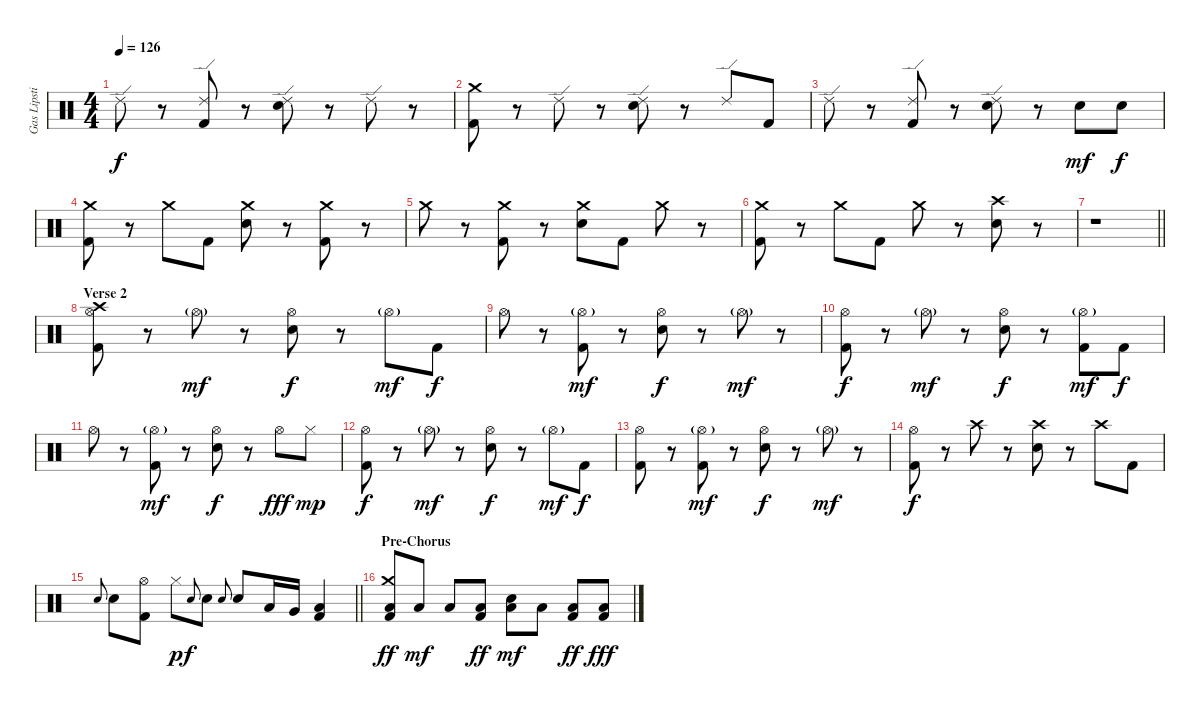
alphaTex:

\track ("Gas Lipstick (Drums)" "Gas Lipsti") {instrument percussion}
\staff {score}
\articulation defaults
\ts (4 4)
\tempo 126
\clef neutral
\ks c "Ride (edge) 2".8{dy f}
r.8 ("Ride (edge) 2" "Kick (hit) 2").8 r.8 ("Ride (edge) 2" "Snare (hit) 2").8 r.8 "Ride (edge) 2".8 r.8 |
("Crash medium (hit)" "Kick (hit) 2").8 r.8 "Ride (edge) 2".8 r.8 ("Ride (edge) 2" "Snare (hit) 2").8 r.8 "Ride (edge) 2".8 "Kick (hit) 2".8 |
"Ride (edge) 2".8 r.8 ("Ride (edge) 2" "Kick (hit) 2").8 r.8 ("Ride (edge) 2" "Snare (hit) 2").8 r.8 "Snare (hit) 2".8{dy mf} "Snare (hit) 2".8{dy f} |
("Crash medium (hit)" "Kick (hit) 2").8 r.8 "Crash medium (hit)".8 "Kick (hit) 2".8 ("Crash medium (hit)" "Snare (hit) 2").8 r.8 ("Crash medium (hit)" "Kick (hit) 2").8 r.8 |
"Crash medium (hit)".8 r.8 ("Crash medium (hit)" "Kick (hit) 2").8 r.8 ("Crash medium (hit)" "Snare (hit) 2").8 "Kick (hit) 2".8 "Crash medium (hit)".8 r.8 |
("Crash medium (hit)" "Kick (hit) 2").8 r.8 "Crash medium (hit)".8 "Kick (hit) 2".8 "Crash medium (hit)".8 r.8 ("Crash high (hit)" "Snare (hit) 2").8 r.8 |
\barLineRight lightlight
r.1 |
\section ("" "Verse 2")
("Crash high (hit)" "Hi-Hat (open)" "Kick (hit) 2").8 r.8 "Hi-Hat (open)"{g}.8{dy mf} r.8 ("Hi-Hat (open)" "Snare (hit) 2").8{dy f} r.8 "Hi-Hat (open)"{g}.8{dy mf} "Kick (hit) 2".8{dy f} |
"Hi-Hat (open)".8 r.8 ("Hi-Hat (open)"{g} "Kick (hit) 2").8{dy mf} r.8 ("Hi-Hat (open)" "Snare (hit) 2").8{dy f} r.8 "Hi-Hat (open)"{g}.8{dy mf} r.8 |
("Hi-Hat (open)" "Kick (hit) 2").8{dy f} r.8 "Hi-Hat (open)"{g}.8{dy mf} r.8 ("Hi-Hat (open)" "Snare (hit) 2").8{dy f} r.8 ("Hi-Hat (open)"{g} "Kick (hit) 2").8{dy mf} "Kick (hit) 2".8{dy f} |
"Hi-Hat (open)".8 r.8 ("Hi-Hat (open)"{g} "Kick (hit) 2").8{dy mf} r.8 ("Hi-Hat (open)" "Snare (hit) 2").8{dy f} r.8 "Hi-Hat (open)".8{dy fff} "Hi-Hat (closed)".8{dy mp} |
("Hi-Hat (open)" "Kick (hit) 2").8{dy f} r.8 "Hi-Hat (open)"{g}.8{dy mf} r.8 ("Hi-Hat (open)" "Snare (hit) 2").8{dy f} r.8 "Hi-Hat (open)"{g}.8{dy mf} "Kick (hit) 2".8{dy f} |
("Hi-Hat (open)" "Kick (hit) 2").8 r.8 ("Hi-Hat (open)"{g} "Kick (hit) 2").8{dy mf} r.8 ("Hi-Hat (open)" "Snare (hit) 2").8{dy f} r.8 "Hi-Hat (open)"{g}.8{dy mf} r.8 |
("Hi-Hat (open)" "Kick (hit) 2").8{dy f} r.8 "Crash high (hit)".8 r.8 ("Crash high (hit)" "Snare (hit) 2").8 r.8 "Crash high (hit)".8 "Kick (hit) 2".8 |
\barLineRight lightlight "Snare (hit) 2".8{gr onbeat} "Snare (hit) 2".8
("Hi-Hat (open)" "Kick (hit) 2").8 "Hi-Hat (closed)".8{dy p} "Snare (hit) 2".8{gr onbeat dy f} "Snare (hit) 2".8 "Snare (hit) 2".8{gr onbeat} "Snare (hit) 2".8 "Low Tom (hit)".16 "Very Low Tom (hit)".16 ("Low Floor Tom (hit)" "Kick (hit) 2").4 |
\section ("" "Pre-Chorus")
("Crash medium (hit)" "Low Floor Tom (hit)" "Kick (hit) 2").8{dy ff} "Low Floor Tom (hit)".8{dy mf} "Low Floor Tom (hit)".8 ("Low Floor Tom (hit)" "Kick (hit) 2").8{dy ff} ("Low Floor Tom (hit)" "Snare (hit) 2").8{dy mf} "Low Floor Tom (hit)".8 ("Low Floor Tom (hit)" "Kick (hit) 2").8{dy ff} ("Low Floor Tom (hit)" "Kick (hit) 2").8{dy fff}
